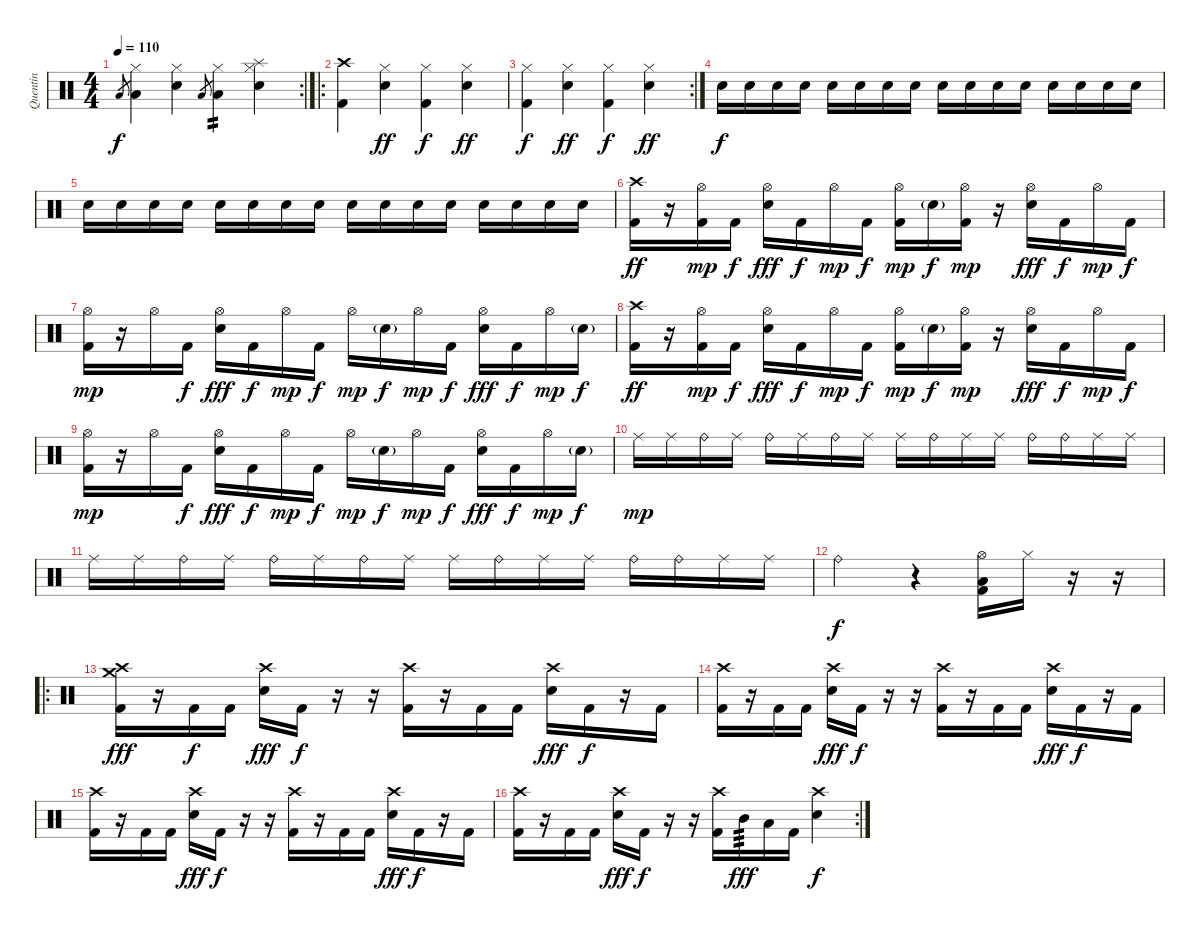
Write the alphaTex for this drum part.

\track ("Quentin" "Quentin") {instrument percussion}
\staff {score}
\articulation defaults
\rc 2
\ts (4 4)
\tempo 110
\clef neutral
\ks c "Low Tom (hit)".8{gr dy f}
("Hi-Hat (closed)" "Low Tom (hit)").4 ("Hi-Hat (closed)" "Electric Snare (hit)").4 "Low Tom (hit)".8{gr} ("Hi-Hat (closed)" "Low Tom (hit)").4{tp 2} ("Hi-Hat (closed)" "Splash (hit)" "Electric Snare (hit)").4 |
\ro
("Crash high (hit)" "Kick (hit) 2").4 ("Hi-Hat (closed)" "Electric Snare (hit)").4{dy ff} ("Hi-Hat (closed)" "Kick (hit) 2").4{dy f} ("Hi-Hat (closed)" "Electric Snare (hit)").4{dy ff} |
\rc 2
("Hi-Hat (closed)" "Kick (hit) 2").4{dy f} ("Hi-Hat (closed)" "Electric Snare (hit)").4{dy ff} ("Hi-Hat (closed)" "Kick (hit) 2").4{dy f} ("Hi-Hat (closed)" "Electric Snare (hit)").4{dy ff} |
"Electric Snare (hit)".16{dy f volume 3} "Electric Snare (hit)".16{volume 13} "Electric Snare (hit)".16 "Electric Snare (hit)".16 "Electric Snare (hit)".16 "Electric Snare (hit)".16 "Electric Snare (hit)".16 "Electric Snare (hit)".16 "Electric Snare (hit)".16 "Electric Snare (hit)".16 "Electric Snare (hit)".16 "Electric Snare (hit)".16 "Electric Snare (hit)".16 "Electric Snare (hit)".16 "Electric Snare (hit)".16 "Electric Snare (hit)".16 |
"Electric Snare (hit)".16 "Electric Snare (hit)".16 "Electric Snare (hit)".16 "Electric Snare (hit)".16 "Electric Snare (hit)".16 "Electric Snare (hit)".16 "Electric Snare (hit)".16 "Electric Snare (hit)".16 "Electric Snare (hit)".16 "Electric Snare (hit)".16 "Electric Snare (hit)".16 "Electric Snare (hit)".16 "Electric Snare (hit)".16 "Electric Snare (hit)".16 "Electric Snare (hit)".16 "Electric Snare (hit)".16 |
("Crash high (hit)" "Kick (hit) 2").16{dy ff} r.16 ("Hi-Hat (open)" "Kick (hit) 2").16{dy mp} "Kick (hit) 2".16{dy f} ("Hi-Hat (open)" "Electric Snare (hit)").16{dy fff} "Kick (hit) 2".16{dy f} "Hi-Hat (open)".16{dy mp} "Kick (hit) 2".16{dy f} ("Hi-Hat (open)" "Kick (hit) 2").16{dy mp} "Electric Snare (hit)"{g}.16{dy f} ("Hi-Hat (open)" "Kick (hit) 2").16{dy mp} r.16 ("Hi-Hat (open)" "Electric Snare (hit)").16{dy fff} "Kick (hit) 2".16{dy f} "Hi-Hat (open)".16{dy mp} "Kick (hit) 2".16{dy f} |
("Hi-Hat (open)" "Kick (hit) 2").16{dy mp} r.16 "Hi-Hat (open)".16 "Kick (hit) 2".16{dy f} ("Hi-Hat (open)" "Electric Snare (hit)").16{dy fff} "Kick (hit) 2".16{dy f} "Hi-Hat (open)".16{dy mp} "Kick (hit) 2".16{dy f} "Hi-Hat (open)".16{dy mp} "Electric Snare (hit)"{g}.16{dy f} "Hi-Hat (open)".16{dy mp} "Kick (hit) 2".16{dy f} ("Hi-Hat (open)" "Electric Snare (hit)").16{dy fff} "Kick (hit) 2".16{dy f} "Hi-Hat (open)".16{dy mp} "Electric Snare (hit)"{g}.16{dy f} |
("Crash high (hit)" "Kick (hit) 2").16{dy ff} r.16 ("Hi-Hat (open)" "Kick (hit) 2").16{dy mp} "Kick (hit) 2".16{dy f} ("Hi-Hat (open)" "Electric Snare (hit)").16{dy fff} "Kick (hit) 2".16{dy f} "Hi-Hat (open)".16{dy mp} "Kick (hit) 2".16{dy f} ("Hi-Hat (open)" "Kick (hit) 2").16{dy mp} "Electric Snare (hit)"{g}.16{dy f} ("Hi-Hat (open)" "Kick (hit) 2").16{dy mp} r.16 ("Hi-Hat (open)" "Electric Snare (hit)").16{dy fff} "Kick (hit) 2".16{dy f} "Hi-Hat (open)".16{dy mp} "Kick (hit) 2".16{dy f} |
("Hi-Hat (open)" "Kick (hit) 2").16{dy mp} r.16 "Hi-Hat (open)".16 "Kick (hit) 2".16{dy f} ("Hi-Hat (open)" "Electric Snare (hit)").16{dy fff} "Kick (hit) 2".16{dy f} "Hi-Hat (open)".16{dy mp} "Kick (hit) 2".16{dy f} "Hi-Hat (open)".16{dy mp} "Electric Snare (hit)"{g}.16{dy f} "Hi-Hat (open)".16{dy mp} "Kick (hit) 2".16{dy f} ("Hi-Hat (open)" "Electric Snare (hit)").16{dy fff} "Kick (hit) 2".16{dy f} "Hi-Hat (open)".16{dy mp} "Electric Snare (hit)"{g}.16{dy f} |
"Ride (middle)".16{dy mp} "Ride (middle)".16 "Ride (bell)".16 "Ride (middle)".16 "Ride (bell)".16 "Ride (middle)".16 "Ride (bell)".16 "Ride (middle)".16 "Ride (middle)".16 "Ride (bell)".16 "Ride (middle)".16 "Ride (middle)".16 "Ride (bell)".16 "Ride (bell)".16 "Ride (middle)".16 "Ride (middle)".16 |
"Ride (middle)".16 "Ride (middle)".16 "Ride (bell)".16 "Ride (middle)".16 "Ride (bell)".16 "Ride (middle)".16 "Ride (bell)".16 "Ride (middle)".16 "Ride (middle)".16 "Ride (bell)".16 "Ride (middle)".16 "Ride (middle)".16 "Ride (bell)".16 "Ride (bell)".16 "Ride (middle)".16 "Ride (middle)".16 |
"Ride (bell)".2{dy f} r.4 ("Hi-Hat (open)" "Low Tom (hit)" "Kick (hit) 2").16 "Hi-Hat (closed)".16 r.16 r.16 |
\ro
("Crash medium (hit)" "Crash high (hit)" "Kick (hit) 2").16{dy fff volume 11} r.16 "Kick (hit) 2".16{dy f} "Kick (hit) 2".16 ("Crash high (hit)" "Electric Snare (hit)").16{dy fff} "Kick (hit) 2".16{dy f} r.16 r.16 ("Crash high (hit)" "Kick (hit) 2").16 r.16 "Kick (hit) 2".16 "Kick (hit) 2".16 ("Crash high (hit)" "Electric Snare (hit)").16{dy fff} "Kick (hit) 2".16{dy f} r.16 "Kick (hit) 2".16 |
("Crash high (hit)" "Kick (hit) 2").16 r.16 "Kick (hit) 2".16 "Kick (hit) 2".16 ("Crash high (hit)" "Electric Snare (hit)").16{dy fff} "Kick (hit) 2".16{dy f} r.16 r.16 ("Crash high (hit)" "Kick (hit) 2").16 r.16 "Kick (hit) 2".16 "Kick (hit) 2".16 ("Crash high (hit)" "Electric Snare (hit)").16{dy fff} "Kick (hit) 2".16{dy f} r.16 "Kick (hit) 2".16 |
("Crash high (hit)" "Kick (hit) 2").16 r.16 "Kick (hit) 2".16 "Kick (hit) 2".16 ("Crash high (hit)" "Electric Snare (hit)").16{dy fff} "Kick (hit) 2".16{dy f} r.16 r.16 ("Crash high (hit)" "Kick (hit) 2").16 r.16 "Kick (hit) 2".16 "Kick (hit) 2".16 ("Crash high (hit)" "Electric Snare (hit)").16{dy fff} "Kick (hit) 2".16{dy f} r.16 "Kick (hit) 2".16 |
\rc 2
("Crash high (hit)" "Kick (hit) 2").16 r.16 "Kick (hit) 2".16 "Kick (hit) 2".16 ("Crash high (hit)" "Electric Snare (hit)").16{dy fff} "Kick (hit) 2".16{dy f} r.16 r.16 ("Crash high (hit)" "Kick (hit) 2").16 "Mid Tom (hit)".16{tp 3 dy fff} "Low Tom (hit)".16 "Kick (hit) 2".16 ("Crash high (hit)" "Electric Snare (hit)").4{dy f}
